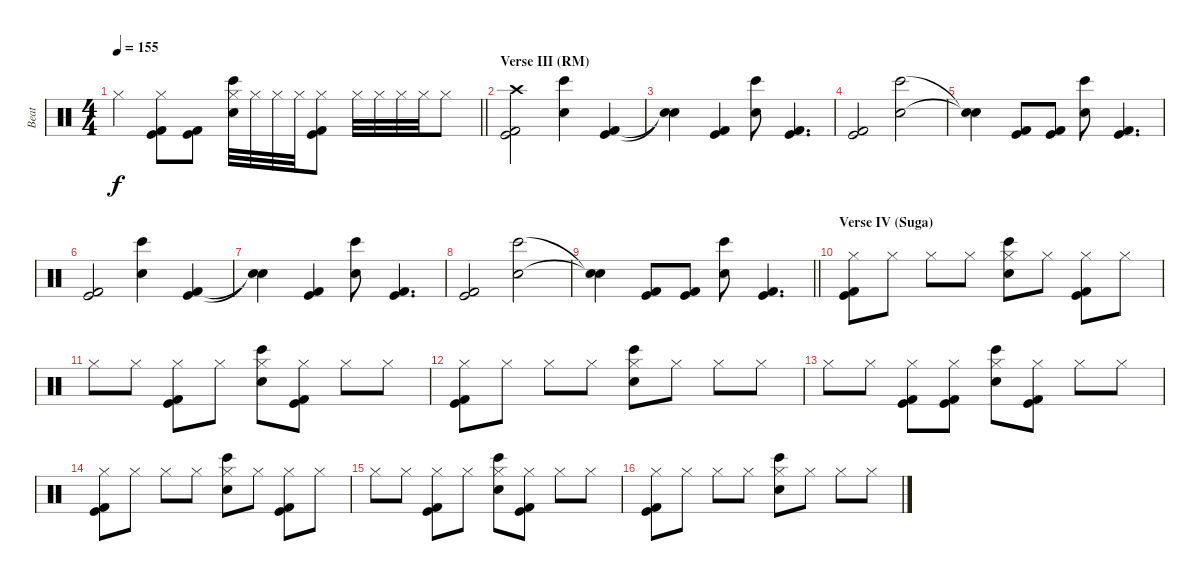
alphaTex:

\track ("Beat" "Beat") {instrument percussion}
\staff {score}
\articulation defaults
\ts (4 4)
\tempo 155
\clef neutral
\barLineRight lightlight
\ks c "Hi-Hat (closed)".4{dy f}
("Hi-Hat (closed)" "Kick (hit)" "Kick (hit) 2").8 ("Kick (hit)" "Kick (hit) 2").8 ("Hi-Hat (closed)" "Hand Clap (hit)" "Bongo High (hit)").32 "Hi-Hat (closed)".32 "Hi-Hat (closed)".32 "Hi-Hat (closed)".32 ("Hi-Hat (closed)" "Kick (hit)" "Kick (hit) 2").8 "Hi-Hat (closed)".32 "Hi-Hat (closed)".32 "Hi-Hat (closed)".32 "Hi-Hat (closed)".32 "Hi-Hat (closed)".8 |
\section ("" "Verse III (RM)")
("Crash high (hit)" "Kick (hit)" "Kick (hit) 2").2 ("Hand Clap (hit)" "Bongo High (hit)").4 ("Kick (hit)" "Kick (hit) 2").4 |
("Snare (hit)"{t} "Snare (hit)"{t}).4 ("Kick (hit)" "Kick (hit) 2").4 ("Hand Clap (hit)" "Bongo High (hit)").8 ("Kick (hit)" "Kick (hit) 2").4{d} |
("Kick (hit)" "Kick (hit) 2").2 ("Hand Clap (hit)" "Bongo High (hit)").2 |
("Snare (hit)"{t} "Snare (hit)"{t}).4 ("Kick (hit)" "Kick (hit) 2").8 ("Kick (hit)" "Kick (hit) 2").8 ("Hand Clap (hit)" "Bongo High (hit)").8 ("Kick (hit)" "Kick (hit) 2").4{d} |
("Kick (hit)" "Kick (hit) 2").2 ("Hand Clap (hit)" "Bongo High (hit)").4 ("Kick (hit)" "Kick (hit) 2").4 |
("Snare (hit)"{t} "Snare (hit)"{t}).4 ("Kick (hit)" "Kick (hit) 2").4 ("Hand Clap (hit)" "Bongo High (hit)").8 ("Kick (hit)" "Kick (hit) 2").4{d} |
("Kick (hit)" "Kick (hit) 2").2 ("Hand Clap (hit)" "Bongo High (hit)").2 |
\barLineRight lightlight
("Snare (hit)"{t} "Snare (hit)"{t}).4 ("Kick (hit)" "Kick (hit) 2").8 ("Kick (hit)" "Kick (hit) 2").8 ("Hand Clap (hit)" "Bongo High (hit)").8 ("Kick (hit)" "Kick (hit) 2").4{d} |
\section ("" "Verse IV (Suga)")
("Hi-Hat (closed)" "Kick (hit)" "Kick (hit) 2").8 "Hi-Hat (closed)".8 "Hi-Hat (closed)".8 "Hi-Hat (closed)".8 ("Hi-Hat (closed)" "Hand Clap (hit)" "Bongo High (hit)").8 "Hi-Hat (closed)".8 ("Hi-Hat (closed)" "Kick (hit)" "Kick (hit) 2").8 "Hi-Hat (closed)".8 |
"Hi-Hat (closed)".8 "Hi-Hat (closed)".8 ("Hi-Hat (closed)" "Kick (hit)" "Kick (hit) 2").8 "Hi-Hat (closed)".8 ("Hi-Hat (closed)" "Hand Clap (hit)" "Bongo High (hit)").8 ("Hi-Hat (closed)" "Kick (hit)" "Kick (hit) 2").8 "Hi-Hat (closed)".8 "Hi-Hat (closed)".8 |
("Hi-Hat (closed)" "Kick (hit)" "Kick (hit) 2").8 "Hi-Hat (closed)".8 "Hi-Hat (closed)".8 "Hi-Hat (closed)".8 ("Hi-Hat (closed)" "Hand Clap (hit)" "Bongo High (hit)").8 "Hi-Hat (closed)".8 "Hi-Hat (closed)".8 "Hi-Hat (closed)".8 |
"Hi-Hat (closed)".8 "Hi-Hat (closed)".8 ("Hi-Hat (closed)" "Kick (hit)" "Kick (hit) 2").8 ("Hi-Hat (closed)" "Kick (hit)" "Kick (hit) 2").8 ("Hi-Hat (closed)" "Hand Clap (hit)" "Bongo High (hit)").8 ("Hi-Hat (closed)" "Kick (hit)" "Kick (hit) 2").8 "Hi-Hat (closed)".8 "Hi-Hat (closed)".8 |
("Hi-Hat (closed)" "Kick (hit)" "Kick (hit) 2").8 "Hi-Hat (closed)".8 "Hi-Hat (closed)".8 "Hi-Hat (closed)".8 ("Hi-Hat (closed)" "Hand Clap (hit)" "Bongo High (hit)").8 "Hi-Hat (closed)".8 ("Hi-Hat (closed)" "Kick (hit)" "Kick (hit) 2").8 "Hi-Hat (closed)".8 |
"Hi-Hat (closed)".8 "Hi-Hat (closed)".8 ("Hi-Hat (closed)" "Kick (hit)" "Kick (hit) 2").8 "Hi-Hat (closed)".8 ("Hi-Hat (closed)" "Hand Clap (hit)" "Bongo High (hit)").8 ("Hi-Hat (closed)" "Kick (hit)" "Kick (hit) 2").8 "Hi-Hat (closed)".8 "Hi-Hat (closed)".8 |
("Hi-Hat (closed)" "Kick (hit)" "Kick (hit) 2").8 "Hi-Hat (closed)".8 "Hi-Hat (closed)".8 "Hi-Hat (closed)".8 ("Hi-Hat (closed)" "Hand Clap (hit)" "Bongo High (hit)").8 "Hi-Hat (closed)".8 "Hi-Hat (closed)".8 "Hi-Hat (closed)".8
